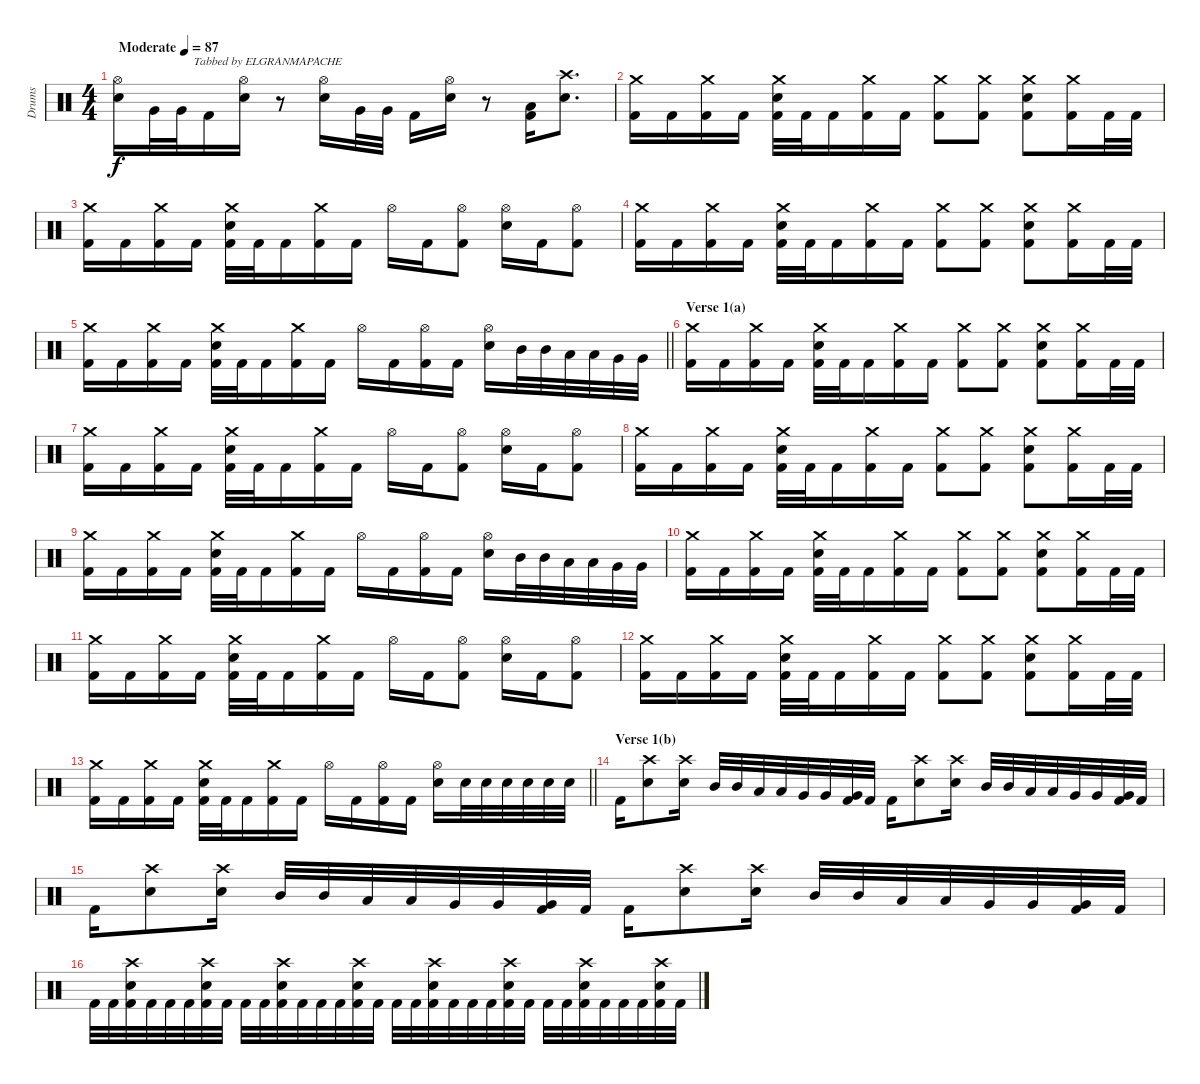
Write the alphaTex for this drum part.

\track ("Drums" "Drums") {instrument percussion}
\staff {score}
\articulation defaults
\ts (4 4)
\tempo (87 "Moderate")
\clef neutral
\ks c
("Hi-Hat (open)" "Electric Snare (hit)").16{txt "                         Tabbed by ELGRANMAPACHE" dy f} "Very Low Tom (hit)".32 "Very Low Tom (hit)".32 "Kick (hit) 2".16 ("Hi-Hat (open)" "Electric Snare (hit)").16 r.8 ("Hi-Hat (open)" "Electric Snare (hit)").16 "Very Low Tom (hit)".32 "Very Low Tom (hit)".32 "Kick (hit) 2".16 ("Hi-Hat (open)" "Electric Snare (hit)").16 r.8 ("Low Tom (hit)" "Kick (hit) 2").16 ("Crash high (hit)" "Electric Snare (hit)").8{d} |
("Crash medium (hit)" "Kick (hit) 2").16 "Kick (hit) 2".16 ("Crash medium (hit)" "Kick (hit) 2").16 "Kick (hit) 2".16 ("Crash medium (hit)" "Electric Snare (hit)" "Kick (hit) 2").32 "Kick (hit) 2".32 "Kick (hit) 2".16 ("Crash medium (hit)" "Kick (hit) 2").16 "Kick (hit) 2".16 ("Crash medium (hit)" "Kick (hit) 2").8 ("Crash medium (hit)" "Kick (hit) 2").8 ("Crash medium (hit)" "Electric Snare (hit)" "Kick (hit) 2").8 ("Crash medium (hit)" "Kick (hit) 2").16 "Kick (hit) 2".32 "Kick (hit) 2".32 |
("Crash medium (hit)" "Kick (hit) 2").16 "Kick (hit) 2".16 ("Crash medium (hit)" "Kick (hit) 2").16 "Kick (hit) 2".16 ("Crash medium (hit)" "Electric Snare (hit)" "Kick (hit) 2").32 "Kick (hit) 2".32 "Kick (hit) 2".16 ("Crash medium (hit)" "Kick (hit) 2").16 "Kick (hit) 2".16 "Hi-Hat (open)".16 "Kick (hit) 2".16 ("Hi-Hat (open)" "Kick (hit) 2").8 ("Hi-Hat (open)" "Electric Snare (hit)").16 "Kick (hit) 2".16 ("Hi-Hat (open)" "Kick (hit) 2").8 |
("Crash medium (hit)" "Kick (hit) 2").16 "Kick (hit) 2".16 ("Crash medium (hit)" "Kick (hit) 2").16 "Kick (hit) 2".16 ("Crash medium (hit)" "Electric Snare (hit)" "Kick (hit) 2").32 "Kick (hit) 2".32 "Kick (hit) 2".16 ("Crash medium (hit)" "Kick (hit) 2").16 "Kick (hit) 2".16 ("Crash medium (hit)" "Kick (hit) 2").8 ("Crash medium (hit)" "Kick (hit) 2").8 ("Crash medium (hit)" "Electric Snare (hit)" "Kick (hit) 2").8 ("Crash medium (hit)" "Kick (hit) 2").16 "Kick (hit) 2".32 "Kick (hit) 2".32 |
\barLineRight lightlight
("Crash medium (hit)" "Kick (hit) 2").16 "Kick (hit) 2".16 ("Crash medium (hit)" "Kick (hit) 2").16 "Kick (hit) 2".16 ("Crash medium (hit)" "Electric Snare (hit)" "Kick (hit) 2").32 "Kick (hit) 2".32 "Kick (hit) 2".16 ("Crash medium (hit)" "Kick (hit) 2").16 "Kick (hit) 2".16 "Hi-Hat (open)".16 "Kick (hit) 2".16 ("Hi-Hat (open)" "Kick (hit) 2").16 "Kick (hit) 2".16 ("Hi-Hat (open)" "Electric Snare (hit)").16 "Mid Tom (hit)".32 "Mid Tom (hit)".32 "Low Tom (hit)".32 "Low Tom (hit)".32 "Very Low Tom (hit)".32 "Very Low Tom (hit)".32 |
\section ("" "Verse 1(a)")
("Crash medium (hit)" "Kick (hit) 2").16 "Kick (hit) 2".16 ("Crash medium (hit)" "Kick (hit) 2").16 "Kick (hit) 2".16 ("Crash medium (hit)" "Electric Snare (hit)" "Kick (hit) 2").32 "Kick (hit) 2".32 "Kick (hit) 2".16 ("Crash medium (hit)" "Kick (hit) 2").16 "Kick (hit) 2".16 ("Crash medium (hit)" "Kick (hit) 2").8 ("Crash medium (hit)" "Kick (hit) 2").8 ("Crash medium (hit)" "Electric Snare (hit)" "Kick (hit) 2").8 ("Crash medium (hit)" "Kick (hit) 2").16 "Kick (hit) 2".32 "Kick (hit) 2".32 |
("Crash medium (hit)" "Kick (hit) 2").16 "Kick (hit) 2".16 ("Crash medium (hit)" "Kick (hit) 2").16 "Kick (hit) 2".16 ("Crash medium (hit)" "Electric Snare (hit)" "Kick (hit) 2").32 "Kick (hit) 2".32 "Kick (hit) 2".16 ("Crash medium (hit)" "Kick (hit) 2").16 "Kick (hit) 2".16 "Hi-Hat (open)".16 "Kick (hit) 2".16 ("Hi-Hat (open)" "Kick (hit) 2").8 ("Hi-Hat (open)" "Electric Snare (hit)").16 "Kick (hit) 2".16 ("Hi-Hat (open)" "Kick (hit) 2").8 |
("Crash medium (hit)" "Kick (hit) 2").16 "Kick (hit) 2".16 ("Crash medium (hit)" "Kick (hit) 2").16 "Kick (hit) 2".16 ("Crash medium (hit)" "Electric Snare (hit)" "Kick (hit) 2").32 "Kick (hit) 2".32 "Kick (hit) 2".16 ("Crash medium (hit)" "Kick (hit) 2").16 "Kick (hit) 2".16 ("Crash medium (hit)" "Kick (hit) 2").8 ("Crash medium (hit)" "Kick (hit) 2").8 ("Crash medium (hit)" "Electric Snare (hit)" "Kick (hit) 2").8 ("Crash medium (hit)" "Kick (hit) 2").16 "Kick (hit) 2".32 "Kick (hit) 2".32 |
("Crash medium (hit)" "Kick (hit) 2").16 "Kick (hit) 2".16 ("Crash medium (hit)" "Kick (hit) 2").16 "Kick (hit) 2".16 ("Crash medium (hit)" "Electric Snare (hit)" "Kick (hit) 2").32 "Kick (hit) 2".32 "Kick (hit) 2".16 ("Crash medium (hit)" "Kick (hit) 2").16 "Kick (hit) 2".16 "Hi-Hat (open)".16 "Kick (hit) 2".16 ("Hi-Hat (open)" "Kick (hit) 2").16 "Kick (hit) 2".16 ("Hi-Hat (open)" "Electric Snare (hit)").16 "Mid Tom (hit)".32 "Mid Tom (hit)".32 "Low Tom (hit)".32 "Low Tom (hit)".32 "Very Low Tom (hit)".32 "Very Low Tom (hit)".32 |
("Crash medium (hit)" "Kick (hit) 2").16 "Kick (hit) 2".16 ("Crash medium (hit)" "Kick (hit) 2").16 "Kick (hit) 2".16 ("Crash medium (hit)" "Electric Snare (hit)" "Kick (hit) 2").32 "Kick (hit) 2".32 "Kick (hit) 2".16 ("Crash medium (hit)" "Kick (hit) 2").16 "Kick (hit) 2".16 ("Crash medium (hit)" "Kick (hit) 2").8 ("Crash medium (hit)" "Kick (hit) 2").8 ("Crash medium (hit)" "Electric Snare (hit)" "Kick (hit) 2").8 ("Crash medium (hit)" "Kick (hit) 2").16 "Kick (hit) 2".32 "Kick (hit) 2".32 |
("Crash medium (hit)" "Kick (hit) 2").16 "Kick (hit) 2".16 ("Crash medium (hit)" "Kick (hit) 2").16 "Kick (hit) 2".16 ("Crash medium (hit)" "Electric Snare (hit)" "Kick (hit) 2").32 "Kick (hit) 2".32 "Kick (hit) 2".16 ("Crash medium (hit)" "Kick (hit) 2").16 "Kick (hit) 2".16 "Hi-Hat (open)".16 "Kick (hit) 2".16 ("Hi-Hat (open)" "Kick (hit) 2").8 ("Hi-Hat (open)" "Electric Snare (hit)").16 "Kick (hit) 2".16 ("Hi-Hat (open)" "Kick (hit) 2").8 |
("Crash medium (hit)" "Kick (hit) 2").16 "Kick (hit) 2".16 ("Crash medium (hit)" "Kick (hit) 2").16 "Kick (hit) 2".16 ("Crash medium (hit)" "Electric Snare (hit)" "Kick (hit) 2").32 "Kick (hit) 2".32 "Kick (hit) 2".16 ("Crash medium (hit)" "Kick (hit) 2").16 "Kick (hit) 2".16 ("Crash medium (hit)" "Kick (hit) 2").8 ("Crash medium (hit)" "Kick (hit) 2").8 ("Crash medium (hit)" "Electric Snare (hit)" "Kick (hit) 2").8 ("Crash medium (hit)" "Kick (hit) 2").16 "Kick (hit) 2".32 "Kick (hit) 2".32 |
\barLineRight lightlight
("Crash medium (hit)" "Kick (hit) 2").16 "Kick (hit) 2".16 ("Crash medium (hit)" "Kick (hit) 2").16 "Kick (hit) 2".16 ("Crash medium (hit)" "Electric Snare (hit)" "Kick (hit) 2").32 "Kick (hit) 2".32 "Kick (hit) 2".16 ("Crash medium (hit)" "Kick (hit) 2").16 "Kick (hit) 2".16 "Hi-Hat (open)".16 "Kick (hit) 2".16 ("Hi-Hat (open)" "Kick (hit) 2").16 "Kick (hit) 2".16 ("Hi-Hat (open)" "Electric Snare (hit)").16 "Electric Snare (hit)".32 "Electric Snare (hit)".32 "Electric Snare (hit)".32 "Electric Snare (hit)".32 "Electric Snare (hit)".32 "Electric Snare (hit)".32 |
\section ("" "Verse 1(b)")
"Kick (hit) 2".16 ("Crash high (hit)" "Electric Snare (hit)").8 ("Crash high (hit)" "Electric Snare (hit)").16 "Mid Tom (hit)".32 "Mid Tom (hit)".32 "Low Tom (hit)".32 "Low Tom (hit)".32 "Very Low Tom (hit)".32 "Very Low Tom (hit)".32 ("Very Low Tom (hit)" "Kick (hit) 2").32 "Kick (hit) 2".32 "Kick (hit) 2".16 ("Crash high (hit)" "Electric Snare (hit)").8 ("Crash high (hit)" "Electric Snare (hit)").16 "Mid Tom (hit)".32 "Mid Tom (hit)".32 "Low Tom (hit)".32 "Low Tom (hit)".32 "Very Low Tom (hit)".32 "Very Low Tom (hit)".32 ("Very Low Tom (hit)" "Kick (hit) 2").32 "Kick (hit) 2".32 |
"Kick (hit) 2".16 ("Crash high (hit)" "Electric Snare (hit)").8 ("Crash high (hit)" "Electric Snare (hit)").16 "Mid Tom (hit)".32 "Mid Tom (hit)".32 "Low Tom (hit)".32 "Low Tom (hit)".32 "Very Low Tom (hit)".32 "Very Low Tom (hit)".32 ("Very Low Tom (hit)" "Kick (hit) 2").32 "Kick (hit) 2".32 "Kick (hit) 2".16 ("Crash high (hit)" "Electric Snare (hit)").8 ("Crash high (hit)" "Electric Snare (hit)").16 "Mid Tom (hit)".32 "Mid Tom (hit)".32 "Low Tom (hit)".32 "Low Tom (hit)".32 "Very Low Tom (hit)".32 "Very Low Tom (hit)".32 ("Very Low Tom (hit)" "Kick (hit) 2").32 "Kick (hit) 2".32 |
"Kick (hit) 2".32 "Kick (hit) 2".32 ("Crash high (hit)" "Electric Snare (hit)" "Kick (hit) 2").32 "Kick (hit) 2".32 "Kick (hit) 2".32 "Kick (hit) 2".32 ("Crash high (hit)" "Electric Snare (hit)" "Kick (hit) 2").32 "Kick (hit) 2".32 "Kick (hit) 2".32 "Kick (hit) 2".32 ("Crash high (hit)" "Electric Snare (hit)" "Kick (hit) 2").32 "Kick (hit) 2".32 "Kick (hit) 2".32 "Kick (hit) 2".32 ("Crash high (hit)" "Electric Snare (hit)" "Kick (hit) 2").32 "Kick (hit) 2".32 "Kick (hit) 2".32 "Kick (hit) 2".32 ("Crash high (hit)" "Electric Snare (hit)" "Kick (hit) 2").32 "Kick (hit) 2".32 "Kick (hit) 2".32 "Kick (hit) 2".32 ("Crash high (hit)" "Electric Snare (hit)" "Kick (hit) 2").32 "Kick (hit) 2".32 "Kick (hit) 2".32 "Kick (hit) 2".32 ("Crash high (hit)" "Electric Snare (hit)" "Kick (hit) 2").32 "Kick (hit) 2".32 "Kick (hit) 2".32 "Kick (hit) 2".32 ("Crash high (hit)" "Electric Snare (hit)" "Kick (hit) 2").32 "Kick (hit) 2".32
